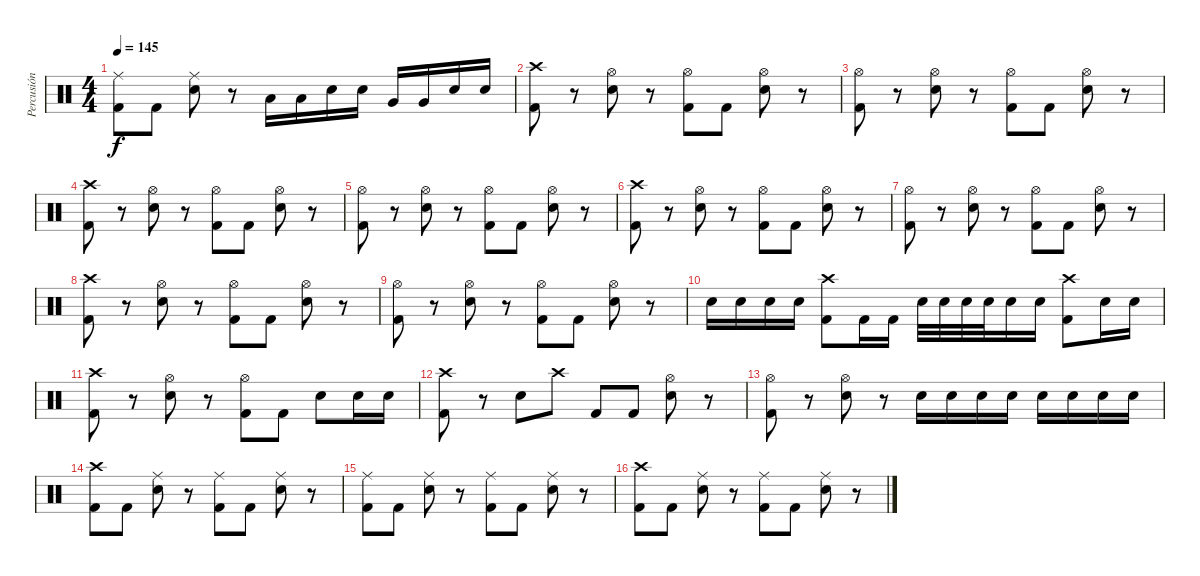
\track ("Percusión" "Percusión") {instrument percussion}
\staff {score}
\articulation defaults
\ts (4 4)
\tempo 145
\clef neutral
\ks c
("Ride (middle)" "Kick (hit) 2").8{dy f} "Kick (hit) 2".8 ("Ride (middle)" "Electric Snare (hit)").8 r.8 "Low Tom (hit)".16 "Low Tom (hit)".16 "Electric Snare (hit)".16 "Electric Snare (hit)".16 "Very Low Tom (hit)".16 "Very Low Tom (hit)".16 "Electric Snare (hit)".16 "Electric Snare (hit)".16 |
("Crash high (hit)" "Kick (hit) 2").8 r.8 ("Hi-Hat (open)" "Electric Snare (hit)").8 r.8 ("Hi-Hat (open)" "Kick (hit) 2").8 "Kick (hit) 2".8 ("Hi-Hat (open)" "Electric Snare (hit)").8 r.8 |
("Hi-Hat (open)" "Kick (hit) 2").8 r.8 ("Hi-Hat (open)" "Electric Snare (hit)").8 r.8 ("Hi-Hat (open)" "Kick (hit) 2").8 "Kick (hit) 2".8 ("Hi-Hat (open)" "Electric Snare (hit)").8 r.8 |
("Crash high (hit)" "Kick (hit) 2").8 r.8 ("Hi-Hat (open)" "Electric Snare (hit)").8 r.8 ("Hi-Hat (open)" "Kick (hit) 2").8 "Kick (hit) 2".8 ("Hi-Hat (open)" "Electric Snare (hit)").8 r.8 |
("Hi-Hat (open)" "Kick (hit) 2").8 r.8 ("Hi-Hat (open)" "Electric Snare (hit)").8 r.8 ("Hi-Hat (open)" "Kick (hit) 2").8 "Kick (hit) 2".8 ("Hi-Hat (open)" "Electric Snare (hit)").8 r.8 |
("Crash high (hit)" "Kick (hit) 2").8 r.8 ("Hi-Hat (open)" "Electric Snare (hit)").8 r.8 ("Hi-Hat (open)" "Kick (hit) 2").8 "Kick (hit) 2".8 ("Hi-Hat (open)" "Electric Snare (hit)").8 r.8 |
("Hi-Hat (open)" "Kick (hit) 2").8 r.8 ("Hi-Hat (open)" "Electric Snare (hit)").8 r.8 ("Hi-Hat (open)" "Kick (hit) 2").8 "Kick (hit) 2".8 ("Hi-Hat (open)" "Electric Snare (hit)").8 r.8 |
("Crash high (hit)" "Kick (hit) 2").8 r.8 ("Hi-Hat (open)" "Electric Snare (hit)").8 r.8 ("Hi-Hat (open)" "Kick (hit) 2").8 "Kick (hit) 2".8 ("Hi-Hat (open)" "Electric Snare (hit)").8 r.8 |
("Hi-Hat (open)" "Kick (hit) 2").8 r.8 ("Hi-Hat (open)" "Electric Snare (hit)").8 r.8 ("Hi-Hat (open)" "Kick (hit) 2").8 "Kick (hit) 2".8 ("Hi-Hat (open)" "Electric Snare (hit)").8 r.8 |
"Electric Snare (hit)".16 "Electric Snare (hit)".16 "Electric Snare (hit)".16 "Electric Snare (hit)".16 ("Crash high (hit)" "Kick (hit) 2").8 "Kick (hit) 2".16 "Kick (hit) 2".16 "Electric Snare (hit)".32 "Electric Snare (hit)".32 "Electric Snare (hit)".32 "Electric Snare (hit)".32 "Electric Snare (hit)".16 "Electric Snare (hit)".16 ("Crash high (hit)" "Kick (hit) 2").8 "Electric Snare (hit)".16 "Electric Snare (hit)".16 |
("Crash high (hit)" "Kick (hit) 2").8 r.8 ("Hi-Hat (open)" "Electric Snare (hit)").8 r.8 ("Hi-Hat (open)" "Kick (hit) 2").8 "Kick (hit) 2".8 "Electric Snare (hit)".8 "Electric Snare (hit)".16 "Electric Snare (hit)".16 |
("Crash high (hit)" "Kick (hit) 2").8 r.8 "Electric Snare (hit)".8 "Crash high (hit)".8 "Kick (hit) 2".8 "Kick (hit) 2".8 ("Hi-Hat (open)" "Electric Snare (hit)").8 r.8 |
("Hi-Hat (open)" "Kick (hit) 2").8 r.8 ("Hi-Hat (open)" "Electric Snare (hit)").8 r.8 "Electric Snare (hit)".16 "Electric Snare (hit)".16 "Electric Snare (hit)".16 "Electric Snare (hit)".16 "Electric Snare (hit)".16 "Electric Snare (hit)".16 "Electric Snare (hit)".16 "Electric Snare (hit)".16 |
("Crash high (hit)" "Kick (hit) 2").8 "Kick (hit) 2".8 ("Ride (middle)" "Electric Snare (hit)").8 r.8 ("Ride (middle)" "Kick (hit) 2").8 "Kick (hit) 2".8 ("Ride (middle)" "Electric Snare (hit)").8 r.8 |
("Ride (middle)" "Kick (hit) 2").8 "Kick (hit) 2".8 ("Ride (middle)" "Electric Snare (hit)").8 r.8 ("Ride (middle)" "Kick (hit) 2").8 "Kick (hit) 2".8 ("Ride (middle)" "Electric Snare (hit)").8 r.8 |
("Crash high (hit)" "Kick (hit) 2").8 "Kick (hit) 2".8 ("Ride (middle)" "Electric Snare (hit)").8 r.8 ("Ride (middle)" "Kick (hit) 2").8 "Kick (hit) 2".8 ("Ride (middle)" "Electric Snare (hit)").8 r.8
